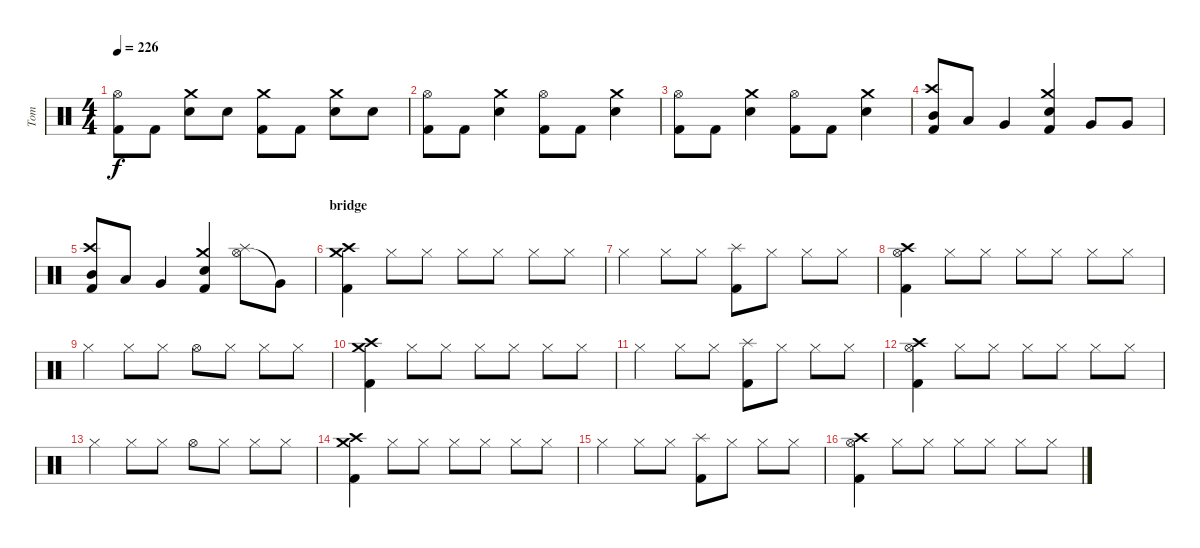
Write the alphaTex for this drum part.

\track ("Tom" "Tom") {instrument percussion}
\staff {score}
\articulation defaults
\ts (4 4)
\tempo 226
\clef neutral
\ks c
("Hi-Hat (open)" "Kick (hit) 2").8{dy f} "Kick (hit) 2".8 ("Crash medium (hit)" "Electric Snare (hit)").8 "Electric Snare (hit)".8 ("Crash medium (hit)" "Kick (hit) 2").8 "Kick (hit) 2".8 ("Crash medium (hit)" "Electric Snare (hit)").8 "Electric Snare (hit)".8 |
("Hi-Hat (open)" "Kick (hit) 2").8 "Kick (hit) 2".8 ("Crash medium (hit)" "Electric Snare (hit)").4 ("Hi-Hat (open)" "Kick (hit) 2").8 "Kick (hit) 2".8 ("Crash medium (hit)" "Electric Snare (hit)").4 |
("Hi-Hat (open)" "Kick (hit) 2").8 "Kick (hit) 2".8 ("Crash medium (hit)" "Electric Snare (hit)").4 ("Hi-Hat (open)" "Kick (hit) 2").8 "Kick (hit) 2".8 ("Crash medium (hit)" "Electric Snare (hit)").4 |
("Crash high (hit)" "Mid Tom (hit)" "Kick (hit) 2").8 "Low Tom (hit)".8 "Very Low Tom (hit)".4 ("Crash medium (hit)" "Electric Snare (hit)" "Kick (hit) 2").4 "Very Low Tom (hit)".8 "Very Low Tom (hit)".8 |
("Crash high (hit)" "Mid Tom (hit)" "Kick (hit) 2").8 "Low Tom (hit)".8 "Very Low Tom (hit)".4 ("Crash medium (hit)" "Electric Snare (hit)" "Kick (hit) 2").4 ("Hi-Hat (open)" "Splash (hit)").8 "Very Low Tom (hit)"{t}.8 |
\section ("" "bridge")
("Crash high (hit)" "Crash medium (hit)" "Kick (hit) 2").4 "Hi-Hat (closed)".8 "Hi-Hat (closed)".8 "Hi-Hat (closed)".8 "Hi-Hat (closed)".8 "Hi-Hat (closed)".8 "Hi-Hat (closed)".8 |
"Hi-Hat (closed)".4 "Hi-Hat (closed)".8 "Hi-Hat (closed)".8 ("Splash (hit)" "Kick (hit) 2").8 "Hi-Hat (closed)".8 "Hi-Hat (closed)".8 "Hi-Hat (closed)".8 |
("Hi-Hat (open)" "Crash high (hit)" "Kick (hit) 2").4 "Hi-Hat (closed)".8 "Hi-Hat (closed)".8 "Hi-Hat (closed)".8 "Hi-Hat (closed)".8 "Hi-Hat (closed)".8 "Hi-Hat (closed)".8 |
"Hi-Hat (closed)".4 "Hi-Hat (closed)".8 "Hi-Hat (closed)".8 "Hi-Hat (open)".8 "Hi-Hat (closed)".8 "Hi-Hat (closed)".8 "Hi-Hat (closed)".8 |
("Crash high (hit)" "Crash medium (hit)" "Kick (hit) 2").4 "Hi-Hat (closed)".8 "Hi-Hat (closed)".8 "Hi-Hat (closed)".8 "Hi-Hat (closed)".8 "Hi-Hat (closed)".8 "Hi-Hat (closed)".8 |
"Hi-Hat (closed)".4 "Hi-Hat (closed)".8 "Hi-Hat (closed)".8 ("Splash (hit)" "Kick (hit) 2").8 "Hi-Hat (closed)".8 "Hi-Hat (closed)".8 "Hi-Hat (closed)".8 |
("Hi-Hat (open)" "Crash high (hit)" "Kick (hit) 2").4 "Hi-Hat (closed)".8 "Hi-Hat (closed)".8 "Hi-Hat (closed)".8 "Hi-Hat (closed)".8 "Hi-Hat (closed)".8 "Hi-Hat (closed)".8 |
"Hi-Hat (closed)".4 "Hi-Hat (closed)".8 "Hi-Hat (closed)".8 "Hi-Hat (open)".8 "Hi-Hat (closed)".8 "Hi-Hat (closed)".8 "Hi-Hat (closed)".8 |
("Crash high (hit)" "Crash medium (hit)" "Kick (hit) 2").4 "Hi-Hat (closed)".8 "Hi-Hat (closed)".8 "Hi-Hat (closed)".8 "Hi-Hat (closed)".8 "Hi-Hat (closed)".8 "Hi-Hat (closed)".8 |
"Hi-Hat (closed)".4 "Hi-Hat (closed)".8 "Hi-Hat (closed)".8 ("Splash (hit)" "Kick (hit) 2").8 "Hi-Hat (closed)".8 "Hi-Hat (closed)".8 "Hi-Hat (closed)".8 |
("Hi-Hat (open)" "Crash high (hit)" "Kick (hit) 2").4 "Hi-Hat (closed)".8 "Hi-Hat (closed)".8 "Hi-Hat (closed)".8 "Hi-Hat (closed)".8 "Hi-Hat (closed)".8 "Hi-Hat (closed)".8
